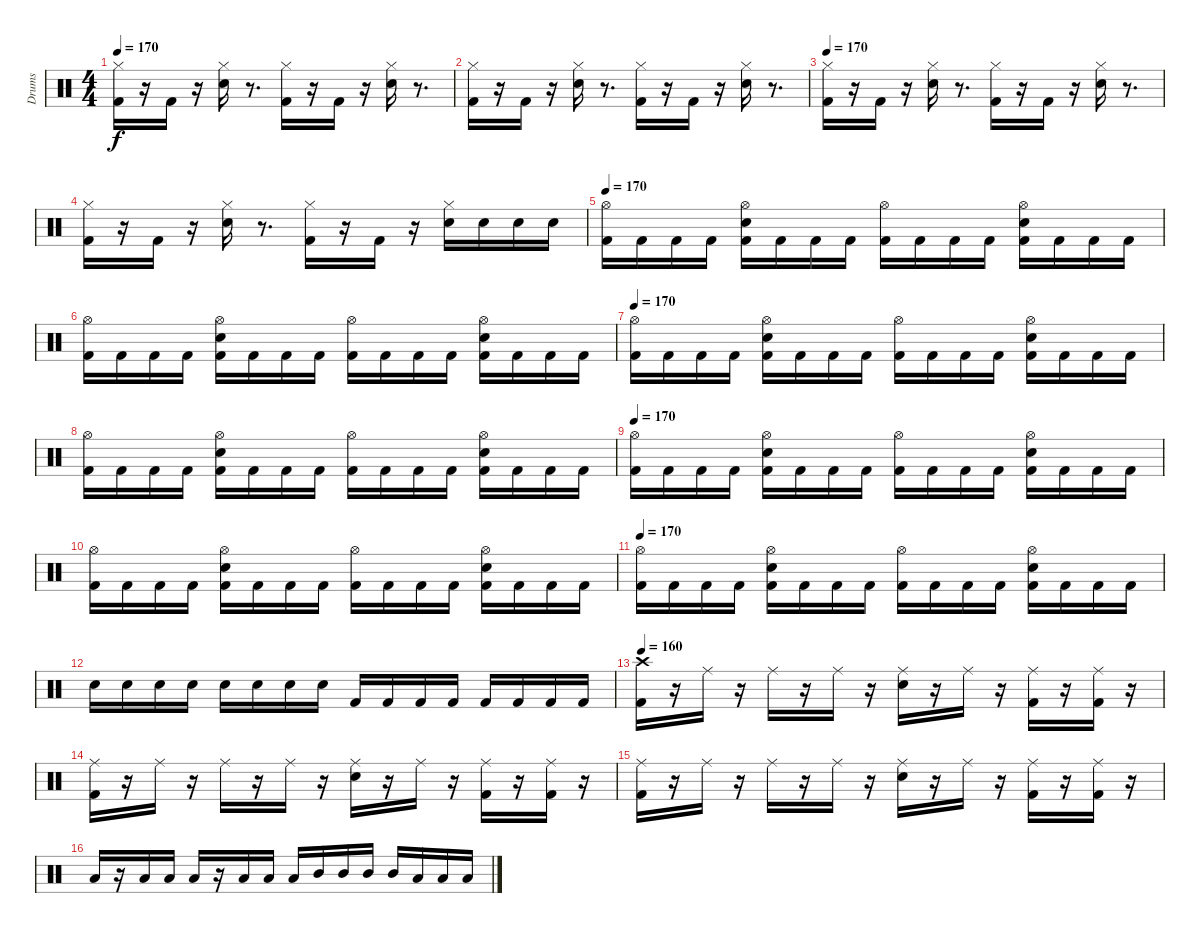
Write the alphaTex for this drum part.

\track ("Drums               " "Drums     ") {instrument percussion}
\staff {score}
\articulation defaults
\ts (4 4)
\tempo 170
\clef neutral
\ks c
("Kick (hit) 2" "Hi-Hat (closed)").16{dy f} r.16 "Kick (hit) 2".16 r.16 ("Snare (hit) 2" "Hi-Hat (closed)").16 r.8{d} ("Kick (hit) 2" "Hi-Hat (closed)").16 r.16 "Kick (hit) 2".16 r.16 ("Snare (hit) 2" "Hi-Hat (closed)").16 r.8{d} |
("Kick (hit) 2" "Hi-Hat (closed)").16 r.16 "Kick (hit) 2".16 r.16 ("Snare (hit) 2" "Hi-Hat (closed)").16 r.8{d} ("Kick (hit) 2" "Hi-Hat (closed)").16 r.16 "Kick (hit) 2".16 r.16 ("Snare (hit) 2" "Hi-Hat (closed)").16 r.8{d} |
\tempo 170
("Kick (hit) 2" "Hi-Hat (closed)").16 r.16 "Kick (hit) 2".16 r.16 ("Snare (hit) 2" "Hi-Hat (closed)").16 r.8{d} ("Kick (hit) 2" "Hi-Hat (closed)").16 r.16 "Kick (hit) 2".16 r.16 ("Snare (hit) 2" "Hi-Hat (closed)").16 r.8{d} |
("Kick (hit) 2" "Hi-Hat (closed)").16 r.16 "Kick (hit) 2".16 r.16 ("Snare (hit) 2" "Hi-Hat (closed)").16 r.8{d} ("Kick (hit) 2" "Hi-Hat (closed)").16 r.16 "Kick (hit) 2".16 r.16 ("Snare (hit) 2" "Hi-Hat (closed)").16 "Snare (hit) 2".16 "Snare (hit) 2".16 "Snare (hit) 2".16 |
\tempo 170
("Kick (hit) 2" "Hi-Hat (open)").16 "Kick (hit) 2".16 "Kick (hit) 2".16 "Kick (hit) 2".16 ("Kick (hit) 2" "Snare (hit) 2" "Hi-Hat (open)").16 "Kick (hit) 2".16 "Kick (hit) 2".16 "Kick (hit) 2".16 ("Kick (hit) 2" "Hi-Hat (open)").16 "Kick (hit) 2".16 "Kick (hit) 2".16 "Kick (hit) 2".16 ("Kick (hit) 2" "Snare (hit) 2" "Hi-Hat (open)").16 "Kick (hit) 2".16 "Kick (hit) 2".16 "Kick (hit) 2".16 |
("Kick (hit) 2" "Hi-Hat (open)").16 "Kick (hit) 2".16 "Kick (hit) 2".16 "Kick (hit) 2".16 ("Kick (hit) 2" "Snare (hit) 2" "Hi-Hat (open)").16 "Kick (hit) 2".16 "Kick (hit) 2".16 "Kick (hit) 2".16 ("Kick (hit) 2" "Hi-Hat (open)").16 "Kick (hit) 2".16 "Kick (hit) 2".16 "Kick (hit) 2".16 ("Kick (hit) 2" "Snare (hit) 2" "Hi-Hat (open)").16 "Kick (hit) 2".16 "Kick (hit) 2".16 "Kick (hit) 2".16 |
\tempo 170
("Kick (hit) 2" "Hi-Hat (open)").16 "Kick (hit) 2".16 "Kick (hit) 2".16 "Kick (hit) 2".16 ("Kick (hit) 2" "Snare (hit) 2" "Hi-Hat (open)").16 "Kick (hit) 2".16 "Kick (hit) 2".16 "Kick (hit) 2".16 ("Kick (hit) 2" "Hi-Hat (open)").16 "Kick (hit) 2".16 "Kick (hit) 2".16 "Kick (hit) 2".16 ("Kick (hit) 2" "Snare (hit) 2" "Hi-Hat (open)").16 "Kick (hit) 2".16 "Kick (hit) 2".16 "Kick (hit) 2".16 |
("Kick (hit) 2" "Hi-Hat (open)").16 "Kick (hit) 2".16 "Kick (hit) 2".16 "Kick (hit) 2".16 ("Kick (hit) 2" "Snare (hit) 2" "Hi-Hat (open)").16 "Kick (hit) 2".16 "Kick (hit) 2".16 "Kick (hit) 2".16 ("Kick (hit) 2" "Hi-Hat (open)").16 "Kick (hit) 2".16 "Kick (hit) 2".16 "Kick (hit) 2".16 ("Kick (hit) 2" "Snare (hit) 2" "Hi-Hat (open)").16 "Kick (hit) 2".16 "Kick (hit) 2".16 "Kick (hit) 2".16 |
\tempo 170
("Kick (hit) 2" "Hi-Hat (open)").16 "Kick (hit) 2".16 "Kick (hit) 2".16 "Kick (hit) 2".16 ("Kick (hit) 2" "Snare (hit) 2" "Hi-Hat (open)").16 "Kick (hit) 2".16 "Kick (hit) 2".16 "Kick (hit) 2".16 ("Kick (hit) 2" "Hi-Hat (open)").16 "Kick (hit) 2".16 "Kick (hit) 2".16 "Kick (hit) 2".16 ("Kick (hit) 2" "Snare (hit) 2" "Hi-Hat (open)").16 "Kick (hit) 2".16 "Kick (hit) 2".16 "Kick (hit) 2".16 |
("Kick (hit) 2" "Hi-Hat (open)").16 "Kick (hit) 2".16 "Kick (hit) 2".16 "Kick (hit) 2".16 ("Kick (hit) 2" "Snare (hit) 2" "Hi-Hat (open)").16 "Kick (hit) 2".16 "Kick (hit) 2".16 "Kick (hit) 2".16 ("Kick (hit) 2" "Hi-Hat (open)").16 "Kick (hit) 2".16 "Kick (hit) 2".16 "Kick (hit) 2".16 ("Kick (hit) 2" "Snare (hit) 2" "Hi-Hat (open)").16 "Kick (hit) 2".16 "Kick (hit) 2".16 "Kick (hit) 2".16 |
\tempo 170
("Kick (hit) 2" "Hi-Hat (open)").16 "Kick (hit) 2".16 "Kick (hit) 2".16 "Kick (hit) 2".16 ("Kick (hit) 2" "Snare (hit) 2" "Hi-Hat (open)").16 "Kick (hit) 2".16 "Kick (hit) 2".16 "Kick (hit) 2".16 ("Kick (hit) 2" "Hi-Hat (open)").16 "Kick (hit) 2".16 "Kick (hit) 2".16 "Kick (hit) 2".16 ("Kick (hit) 2" "Snare (hit) 2" "Hi-Hat (open)").16 "Kick (hit) 2".16 "Kick (hit) 2".16 "Kick (hit) 2".16 |
"Snare (hit) 2".16 "Snare (hit) 2".16 "Snare (hit) 2".16 "Snare (hit) 2".16 "Snare (hit) 2".16 "Snare (hit) 2".16 "Snare (hit) 2".16 "Snare (hit) 2".16 "Kick (hit) 2".16 "Kick (hit) 2".16 "Kick (hit) 2".16 "Kick (hit) 2".16 "Kick (hit) 2".16 "Kick (hit) 2".16 "Kick (hit) 2".16 "Kick (hit) 2".16 |
\tempo 160
("Kick (hit) 2" "Crash high (hit)").16 r.16 "Ride (middle)".16 r.16 "Ride (middle)".16 r.16 "Ride (middle)".16 r.16 ("Snare (hit) 2" "Ride (middle)").16 r.16 "Ride (middle)".16 r.16 ("Kick (hit) 2" "Ride (middle)").16 r.16 ("Kick (hit) 2" "Ride (middle)").16 r.16 |
("Kick (hit) 2" "Ride (middle)").16 r.16 "Ride (middle)".16 r.16 "Ride (middle)".16 r.16 "Ride (middle)".16 r.16 ("Snare (hit) 2" "Ride (middle)").16 r.16 "Ride (middle)".16 r.16 ("Kick (hit) 2" "Ride (middle)").16 r.16 ("Kick (hit) 2" "Ride (middle)").16 r.16 |
("Kick (hit) 2" "Ride (middle)").16 r.16 "Ride (middle)".16 r.16 "Ride (middle)".16 r.16 "Ride (middle)".16 r.16 ("Snare (hit) 2" "Ride (middle)").16 r.16 "Ride (middle)".16 r.16 ("Kick (hit) 2" "Ride (middle)").16 r.16 ("Kick (hit) 2" "Ride (middle)").16 r.16 |
"Low Floor Tom (hit)".16 r.16 "Low Floor Tom (hit)".16 "Low Floor Tom (hit)".16 "Low Floor Tom (hit)".16 r.16 "Low Tom (hit)".16 "Low Tom (hit)".16 "Low Tom (hit)".16 "Mid Tom (hit)".16 "Mid Tom (hit)".16 "Mid Tom (hit)".16 "Mid Tom (hit)".16 "Low Tom (hit)".16 "Low Tom (hit)".16 "Low Tom (hit)".16
